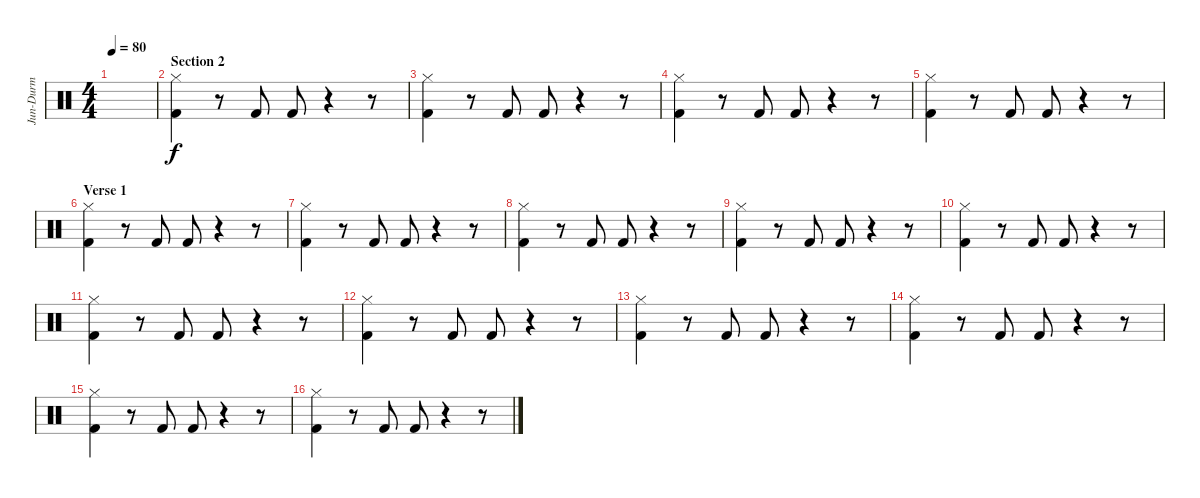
\track ("Jun-Durm" "Jun-Durm") {instrument percussion}
\staff {score}
\articulation defaults
\ts (4 4)
\tempo 80
\clef neutral
\ks c
|
\section ("" "Section 2")
("Hi-Hat (closed)" "Kick (hit) 2").4 r.8 "Kick (hit) 2".8 "Kick (hit) 2".8 r.4 r.8 |
("Hi-Hat (closed)" "Kick (hit) 2").4 r.8 "Kick (hit) 2".8 "Kick (hit) 2".8 r.4 r.8 |
("Hi-Hat (closed)" "Kick (hit) 2").4 r.8 "Kick (hit) 2".8 "Kick (hit) 2".8 r.4 r.8 |
("Hi-Hat (closed)" "Kick (hit) 2").4 r.8 "Kick (hit) 2".8 "Kick (hit) 2".8 r.4 r.8 |
\section ("" "Verse 1")
("Hi-Hat (closed)" "Kick (hit) 2").4 r.8 "Kick (hit) 2".8 "Kick (hit) 2".8 r.4 r.8 |
("Hi-Hat (closed)" "Kick (hit) 2").4 r.8 "Kick (hit) 2".8 "Kick (hit) 2".8 r.4 r.8 |
("Hi-Hat (closed)" "Kick (hit) 2").4 r.8 "Kick (hit) 2".8 "Kick (hit) 2".8 r.4 r.8 |
("Hi-Hat (closed)" "Kick (hit) 2").4 r.8 "Kick (hit) 2".8 "Kick (hit) 2".8 r.4 r.8 |
("Hi-Hat (closed)" "Kick (hit) 2").4 r.8 "Kick (hit) 2".8 "Kick (hit) 2".8 r.4 r.8 |
("Hi-Hat (closed)" "Kick (hit) 2").4 r.8 "Kick (hit) 2".8 "Kick (hit) 2".8 r.4 r.8 |
("Hi-Hat (closed)" "Kick (hit) 2").4 r.8 "Kick (hit) 2".8 "Kick (hit) 2".8 r.4 r.8 |
("Hi-Hat (closed)" "Kick (hit) 2").4 r.8 "Kick (hit) 2".8 "Kick (hit) 2".8 r.4 r.8 |
("Hi-Hat (closed)" "Kick (hit) 2").4 r.8 "Kick (hit) 2".8 "Kick (hit) 2".8 r.4 r.8 |
("Hi-Hat (closed)" "Kick (hit) 2").4 r.8 "Kick (hit) 2".8 "Kick (hit) 2".8 r.4 r.8 |
("Hi-Hat (closed)" "Kick (hit) 2").4 r.8 "Kick (hit) 2".8 "Kick (hit) 2".8 r.4 r.8
